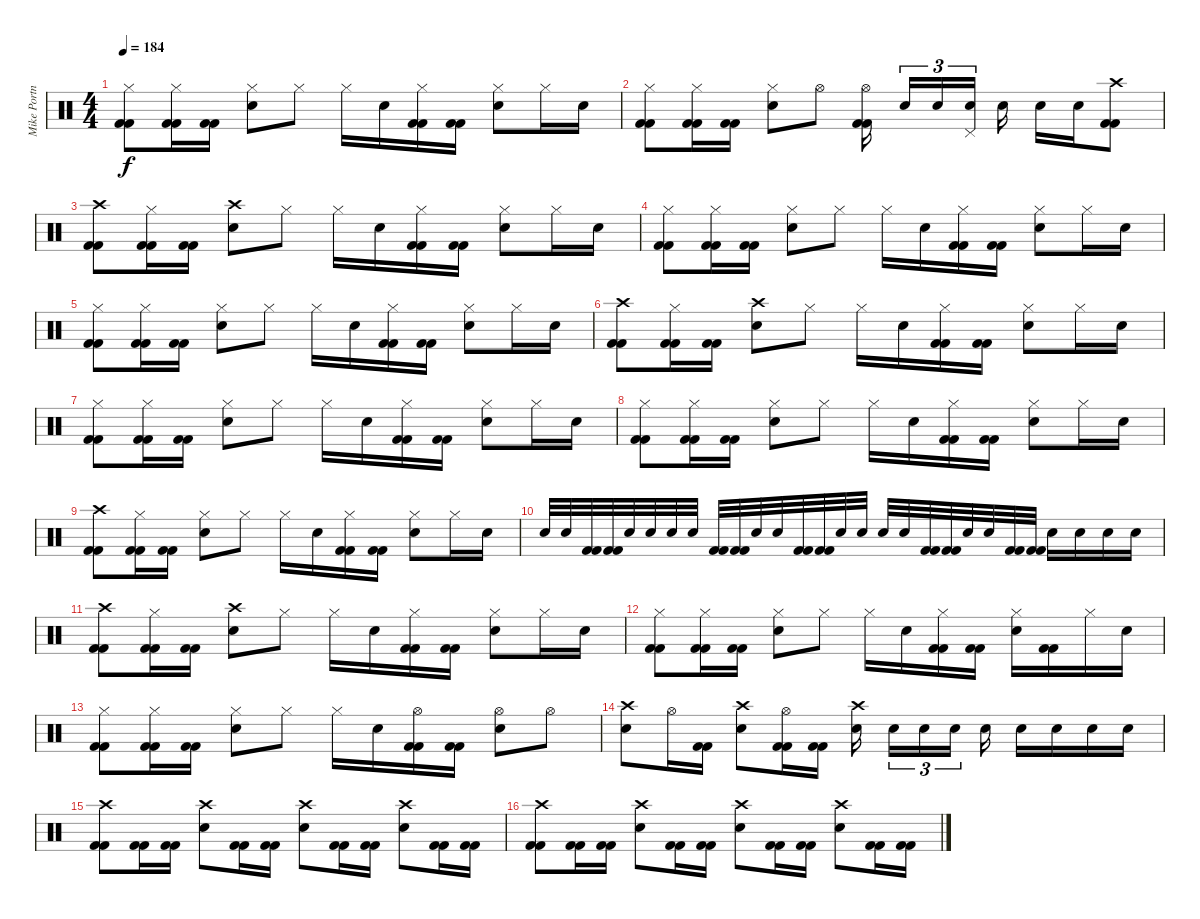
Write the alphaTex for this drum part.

\track ("Mike Portnoy - Drum" "Mike Portn") {instrument percussion}
\staff {score}
\articulation defaults
\ts (4 4)
\tempo 184
\clef neutral
\ks c
("Hi-Hat (closed)" "Kick (hit) 2" "Kick (hit) 2").8{dy f} ("Hi-Hat (closed)" "Kick (hit) 2" "Kick (hit) 2").16 ("Kick (hit) 2" "Kick (hit) 2").16 ("Hi-Hat (closed)" "Snare (hit) 2").8 "Hi-Hat (closed)".8 "Hi-Hat (closed)".16 "Snare (hit) 2".16 ("Hi-Hat (closed)" "Kick (hit) 2" "Kick (hit) 2").16 ("Kick (hit) 2" "Kick (hit) 2").16 ("Hi-Hat (closed)" "Snare (hit) 2").8 "Hi-Hat (closed)".16 "Snare (hit) 2".16 |
("Hi-Hat (closed)" "Kick (hit) 2" "Kick (hit) 2").8 ("Hi-Hat (closed)" "Kick (hit) 2" "Kick (hit) 2").16 ("Kick (hit) 2" "Kick (hit) 2").16 ("Hi-Hat (closed)" "Snare (hit) 2").8 "Hi-Hat (open)".8 ("Hi-Hat (open)" "Kick (hit) 2" "Kick (hit) 2").16 "Snare (hit) 2".16{tu (3 2)} "Snare (hit) 2".16{tu (3 2)} ("Snare (hit) 2" "Pedal Hi-Hat (hit)").16{tu (3 2)} "Snare (hit) 2".16 "Snare (hit) 2".16 "Snare (hit) 2".16 ("Crash high (hit)" "Kick (hit) 2" "Kick (hit) 2").8 |
("Crash high (hit)" "Kick (hit) 2" "Kick (hit) 2").8 ("Hi-Hat (closed)" "Kick (hit) 2" "Kick (hit) 2").16 ("Kick (hit) 2" "Kick (hit) 2").16 ("Crash high (hit)" "Snare (hit) 2").8 "Hi-Hat (closed)".8 "Hi-Hat (closed)".16 "Snare (hit) 2".16 ("Hi-Hat (closed)" "Kick (hit) 2" "Kick (hit) 2").16 ("Kick (hit) 2" "Kick (hit) 2").16 ("Hi-Hat (closed)" "Snare (hit) 2").8 "Hi-Hat (closed)".16 "Snare (hit) 2".16 |
("Hi-Hat (closed)" "Kick (hit) 2" "Kick (hit) 2").8 ("Hi-Hat (closed)" "Kick (hit) 2" "Kick (hit) 2").16 ("Kick (hit) 2" "Kick (hit) 2").16 ("Hi-Hat (closed)" "Snare (hit) 2").8 "Hi-Hat (closed)".8 "Hi-Hat (closed)".16 "Snare (hit) 2".16 ("Hi-Hat (closed)" "Kick (hit) 2" "Kick (hit) 2").16 ("Kick (hit) 2" "Kick (hit) 2").16 ("Hi-Hat (closed)" "Snare (hit) 2").8 "Hi-Hat (closed)".16 "Snare (hit) 2".16 |
("Hi-Hat (closed)" "Kick (hit) 2" "Kick (hit) 2").8 ("Hi-Hat (closed)" "Kick (hit) 2" "Kick (hit) 2").16 ("Kick (hit) 2" "Kick (hit) 2").16 ("Hi-Hat (closed)" "Snare (hit) 2").8 "Hi-Hat (closed)".8 "Hi-Hat (closed)".16 "Snare (hit) 2".16 ("Hi-Hat (closed)" "Kick (hit) 2" "Kick (hit) 2").16 ("Kick (hit) 2" "Kick (hit) 2").16 ("Hi-Hat (closed)" "Snare (hit) 2").8 "Hi-Hat (closed)".16 "Snare (hit) 2".16 |
("Crash high (hit)" "Kick (hit) 2" "Kick (hit) 2").8 ("Hi-Hat (closed)" "Kick (hit) 2" "Kick (hit) 2").16 ("Kick (hit) 2" "Kick (hit) 2").16 ("Crash high (hit)" "Snare (hit) 2").8 "Hi-Hat (closed)".8 "Hi-Hat (closed)".16 "Snare (hit) 2".16 ("Hi-Hat (closed)" "Kick (hit) 2" "Kick (hit) 2").16 ("Kick (hit) 2" "Kick (hit) 2").16 ("Hi-Hat (closed)" "Snare (hit) 2").8 "Hi-Hat (closed)".16 "Snare (hit) 2".16 |
("Hi-Hat (closed)" "Kick (hit) 2" "Kick (hit) 2").8 ("Hi-Hat (closed)" "Kick (hit) 2" "Kick (hit) 2").16 ("Kick (hit) 2" "Kick (hit) 2").16 ("Hi-Hat (closed)" "Snare (hit) 2").8 "Hi-Hat (closed)".8 "Hi-Hat (closed)".16 "Snare (hit) 2".16 ("Hi-Hat (closed)" "Kick (hit) 2" "Kick (hit) 2").16 ("Kick (hit) 2" "Kick (hit) 2").16 ("Hi-Hat (closed)" "Snare (hit) 2").8 "Hi-Hat (closed)".16 "Snare (hit) 2".16 |
("Hi-Hat (closed)" "Kick (hit) 2" "Kick (hit) 2").8 ("Hi-Hat (closed)" "Kick (hit) 2" "Kick (hit) 2").16 ("Kick (hit) 2" "Kick (hit) 2").16 ("Hi-Hat (closed)" "Snare (hit) 2").8 "Hi-Hat (closed)".8 "Hi-Hat (closed)".16 "Snare (hit) 2".16 ("Hi-Hat (closed)" "Kick (hit) 2" "Kick (hit) 2").16 ("Kick (hit) 2" "Kick (hit) 2").16 ("Hi-Hat (closed)" "Snare (hit) 2").8 "Hi-Hat (closed)".16 "Snare (hit) 2".16 |
("Crash high (hit)" "Kick (hit) 2" "Kick (hit) 2").8 ("Hi-Hat (closed)" "Kick (hit) 2" "Kick (hit) 2").16 ("Kick (hit) 2" "Kick (hit) 2").16 ("Hi-Hat (closed)" "Snare (hit) 2").8 "Hi-Hat (closed)".8 "Hi-Hat (closed)".16 "Snare (hit) 2".16 ("Hi-Hat (closed)" "Kick (hit) 2" "Kick (hit) 2").16 ("Kick (hit) 2" "Kick (hit) 2").16 ("Hi-Hat (closed)" "Snare (hit) 2").8 "Hi-Hat (closed)".16 "Snare (hit) 2".16 |
"Snare (hit) 2".32 "Snare (hit) 2".32 ("Kick (hit) 2" "Kick (hit) 2").32 ("Kick (hit) 2" "Kick (hit) 2").32 "Snare (hit) 2".32 "Snare (hit) 2".32 "Snare (hit) 2".32 "Snare (hit) 2".32 ("Kick (hit) 2" "Kick (hit) 2").32 ("Kick (hit) 2" "Kick (hit) 2").32 "Snare (hit) 2".32 "Snare (hit) 2".32 ("Kick (hit) 2" "Kick (hit) 2").32 ("Kick (hit) 2" "Kick (hit) 2").32 "Snare (hit) 2".32 "Snare (hit) 2".32 "Snare (hit) 2".32 "Snare (hit) 2".32 ("Kick (hit) 2" "Kick (hit) 2").32 ("Kick (hit) 2" "Kick (hit) 2").32 "Snare (hit) 2".32 "Snare (hit) 2".32 ("Kick (hit) 2" "Kick (hit) 2").32 ("Kick (hit) 2" "Kick (hit) 2").32 "Snare (hit) 2".16 "Snare (hit) 2".16 "Snare (hit) 2".16 "Snare (hit) 2".16 |
("Crash high (hit)" "Kick (hit) 2" "Kick (hit) 2").8 ("Hi-Hat (closed)" "Kick (hit) 2" "Kick (hit) 2").16 ("Kick (hit) 2" "Kick (hit) 2").16 ("Crash high (hit)" "Snare (hit) 2").8 "Hi-Hat (closed)".8 "Hi-Hat (closed)".16 "Snare (hit) 2".16 ("Hi-Hat (closed)" "Kick (hit) 2" "Kick (hit) 2").16 ("Kick (hit) 2" "Kick (hit) 2").16 ("Hi-Hat (closed)" "Snare (hit) 2").8 "Hi-Hat (closed)".16 "Snare (hit) 2".16 |
("Hi-Hat (closed)" "Kick (hit) 2" "Kick (hit) 2").8 ("Hi-Hat (closed)" "Kick (hit) 2" "Kick (hit) 2").16 ("Kick (hit) 2" "Kick (hit) 2").16 ("Hi-Hat (closed)" "Snare (hit) 2").8 "Hi-Hat (closed)".8 "Hi-Hat (closed)".16 "Snare (hit) 2".16 ("Hi-Hat (closed)" "Kick (hit) 2" "Kick (hit) 2").16 ("Kick (hit) 2" "Kick (hit) 2").16 ("Hi-Hat (closed)" "Snare (hit) 2").16 ("Kick (hit) 2" "Kick (hit) 2").16 "Hi-Hat (closed)".16 "Snare (hit) 2".16 |
("Hi-Hat (closed)" "Kick (hit) 2" "Kick (hit) 2").8 ("Hi-Hat (closed)" "Kick (hit) 2" "Kick (hit) 2").16 ("Kick (hit) 2" "Kick (hit) 2").16 ("Hi-Hat (closed)" "Snare (hit) 2").8 "Hi-Hat (closed)".8 "Hi-Hat (closed)".16 "Snare (hit) 2".16 ("Hi-Hat (open)" "Kick (hit) 2" "Kick (hit) 2").16 ("Kick (hit) 2" "Kick (hit) 2").16 ("Hi-Hat (open)" "Snare (hit) 2").8 "Hi-Hat (open)".8 |
("Crash high (hit)" "Snare (hit) 2").8 "Hi-Hat (open)".16 ("Kick (hit) 2" "Kick (hit) 2").16 ("Crash high (hit)" "Snare (hit) 2").8 ("Hi-Hat (open)" "Kick (hit) 2" "Kick (hit) 2").16 ("Kick (hit) 2" "Kick (hit) 2").16 ("Crash high (hit)" "Snare (hit) 2").16 "Snare (hit) 2".16{tu (3 2)} "Snare (hit) 2".16{tu (3 2)} "Snare (hit) 2".16{tu (3 2)} "Snare (hit) 2".16 "Snare (hit) 2".16 "Snare (hit) 2".16 "Snare (hit) 2".16 "Snare (hit) 2".16 |
("Crash high (hit)" "Kick (hit) 2" "Kick (hit) 2").8 ("Kick (hit) 2" "Kick (hit) 2").16 ("Kick (hit) 2" "Kick (hit) 2").16 ("Crash high (hit)" "Snare (hit) 2").8 ("Kick (hit) 2" "Kick (hit) 2").16 ("Kick (hit) 2" "Kick (hit) 2").16 ("Crash high (hit)" "Snare (hit) 2").8 ("Kick (hit) 2" "Kick (hit) 2").16 ("Kick (hit) 2" "Kick (hit) 2").16 ("Crash high (hit)" "Snare (hit) 2").8 ("Kick (hit) 2" "Kick (hit) 2").16 ("Kick (hit) 2" "Kick (hit) 2").16 |
("Crash high (hit)" "Kick (hit) 2" "Kick (hit) 2").8 ("Kick (hit) 2" "Kick (hit) 2").16 ("Kick (hit) 2" "Kick (hit) 2").16 ("Crash high (hit)" "Snare (hit) 2").8 ("Kick (hit) 2" "Kick (hit) 2").16 ("Kick (hit) 2" "Kick (hit) 2").16 ("Crash high (hit)" "Snare (hit) 2").8 ("Kick (hit) 2" "Kick (hit) 2").16 ("Kick (hit) 2" "Kick (hit) 2").16 ("Crash high (hit)" "Snare (hit) 2").8 ("Kick (hit) 2" "Kick (hit) 2").16 ("Kick (hit) 2" "Kick (hit) 2").16
